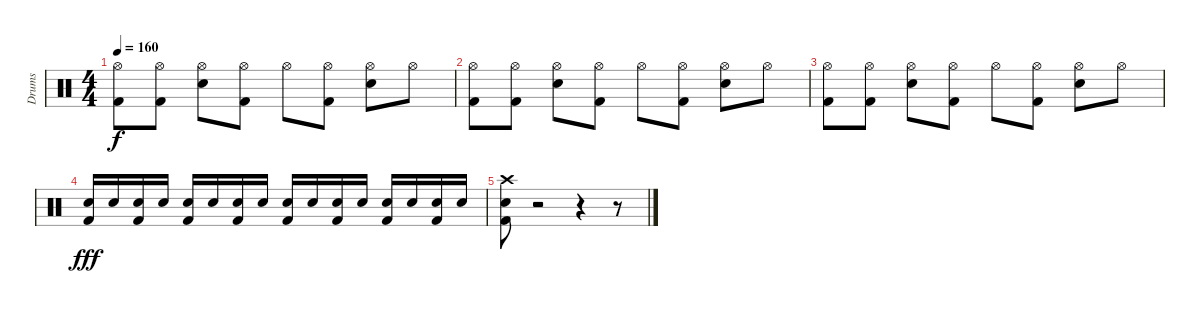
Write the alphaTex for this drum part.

\track ("Drums" "Drums") {instrument percussion}
\staff {score}
\articulation defaults
\ts (4 4)
\tempo 160
\clef neutral
\ks c
("Kick (hit) 2" "Hi-Hat (open)").8{dy f} ("Kick (hit) 2" "Hi-Hat (open)").8 ("Electric Snare (hit)" "Hi-Hat (open)").8 ("Kick (hit) 2" "Hi-Hat (open)").8 "Hi-Hat (open)".8 ("Kick (hit) 2" "Hi-Hat (open)").8 ("Electric Snare (hit)" "Hi-Hat (open)").8 "Hi-Hat (open)".8 |
("Kick (hit) 2" "Hi-Hat (open)").8 ("Kick (hit) 2" "Hi-Hat (open)").8 ("Electric Snare (hit)" "Hi-Hat (open)").8 ("Kick (hit) 2" "Hi-Hat (open)").8 "Hi-Hat (open)".8 ("Kick (hit) 2" "Hi-Hat (open)").8 ("Electric Snare (hit)" "Hi-Hat (open)").8 "Hi-Hat (open)".8 |
("Kick (hit) 2" "Hi-Hat (open)").8 ("Kick (hit) 2" "Hi-Hat (open)").8 ("Electric Snare (hit)" "Hi-Hat (open)").8 ("Kick (hit) 2" "Hi-Hat (open)").8 "Hi-Hat (open)".8 ("Kick (hit) 2" "Hi-Hat (open)").8 ("Electric Snare (hit)" "Hi-Hat (open)").8 "Hi-Hat (open)".8 |
("Kick (hit) 2" "Electric Snare (hit)").16{dy fff} "Electric Snare (hit)".16 ("Kick (hit) 2" "Electric Snare (hit)").16 "Electric Snare (hit)".16 ("Kick (hit) 2" "Electric Snare (hit)").16 "Electric Snare (hit)".16 ("Kick (hit) 2" "Electric Snare (hit)").16 "Electric Snare (hit)".16 ("Kick (hit) 2" "Electric Snare (hit)").16 "Electric Snare (hit)".16 ("Kick (hit) 2" "Electric Snare (hit)").16 "Electric Snare (hit)".16 ("Kick (hit) 2" "Electric Snare (hit)").16 "Electric Snare (hit)".16 ("Kick (hit) 2" "Electric Snare (hit)").16 "Electric Snare (hit)".16 |
("Kick (hit) 2" "Electric Snare (hit)" "Crash high (hit)").8 r.2 r.4 r.8
